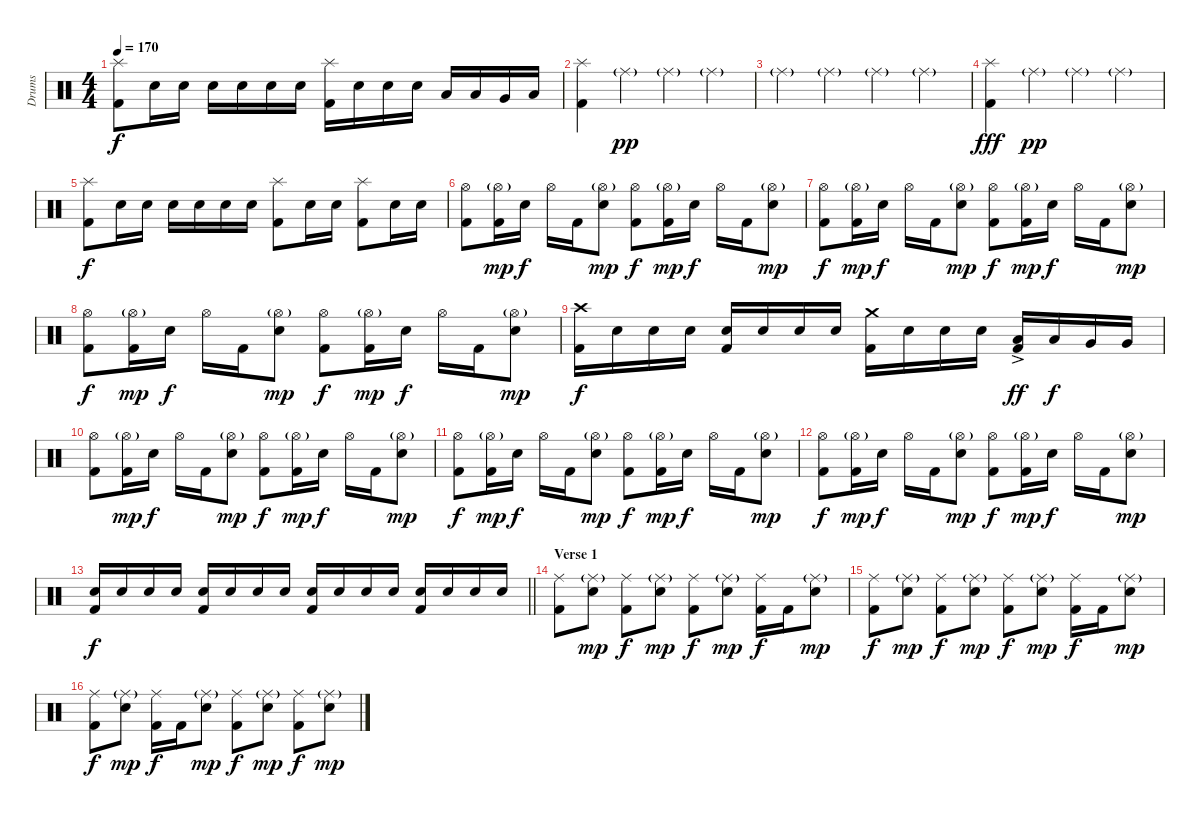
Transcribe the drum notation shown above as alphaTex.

\track ("Drums" "Drums") {instrument percussion}
\staff {score}
\articulation defaults
\ts (4 4)
\tempo 170
\clef neutral
\ks c
("Splash (hit)" "Kick (hit) 2").8{dy f} "Snare (hit) 2".16 "Snare (hit) 2".16 "Snare (hit) 2".16 "Snare (hit) 2".16 "Snare (hit) 2".16 "Snare (hit) 2".16 ("Splash (hit)" "Kick (hit) 2").16 "Snare (hit) 2".16 "Snare (hit) 2".16 "Snare (hit) 2".16 "Low Tom (hit)".16 "Low Tom (hit)".16 "Very Low Tom (hit)".16 "Low Floor Tom (hit)".16 |
("Splash (hit)" "Kick (hit) 2").4 "Ride (middle)"{g}.4{dy pp} "Ride (middle)"{g}.4 "Ride (middle)"{g}.4 |
"Ride (middle)"{g}.4 "Ride (middle)"{g}.4 "Ride (middle)"{g}.4 "Ride (middle)"{g}.4 |
("Splash (hit)" "Kick (hit) 2").4{dy fff} "Ride (middle)"{g}.4{dy pp} "Ride (middle)"{g}.4 "Ride (middle)"{g}.4 |
("Splash (hit)" "Kick (hit) 2").8{dy f} "Snare (hit) 2".16 "Snare (hit) 2".16 "Snare (hit) 2".16 "Snare (hit) 2".16 "Snare (hit) 2".16 "Snare (hit) 2".16 ("Splash (hit)" "Kick (hit) 2").8 "Snare (hit) 2".16 "Snare (hit) 2".16 ("Splash (hit)" "Kick (hit) 2").8 "Snare (hit) 2".16 "Snare (hit) 2".16 |
("Hi-Hat (open)" "Kick (hit) 2").8 ("Hi-Hat (open)"{g} "Kick (hit) 2").16{dy mp} "Snare (hit) 2".16{dy f} "Hi-Hat (open)".16 "Kick (hit) 2".16 ("Hi-Hat (open)"{g} "Snare (hit) 2").8{dy mp} ("Hi-Hat (open)" "Kick (hit) 2").8{dy f} ("Hi-Hat (open)"{g} "Kick (hit) 2").16{dy mp} "Snare (hit) 2".16{dy f} "Hi-Hat (open)".16 "Kick (hit) 2".16 ("Hi-Hat (open)"{g} "Snare (hit) 2").8{dy mp} |
("Hi-Hat (open)" "Kick (hit) 2").8{dy f} ("Hi-Hat (open)"{g} "Kick (hit) 2").16{dy mp} "Snare (hit) 2".16{dy f} "Hi-Hat (open)".16 "Kick (hit) 2".16 ("Hi-Hat (open)"{g} "Snare (hit) 2").8{dy mp} ("Hi-Hat (open)" "Kick (hit) 2").8{dy f} ("Hi-Hat (open)"{g} "Kick (hit) 2").16{dy mp} "Snare (hit) 2".16{dy f} "Hi-Hat (open)".16 "Kick (hit) 2".16 ("Hi-Hat (open)"{g} "Snare (hit) 2").8{dy mp} |
("Hi-Hat (open)" "Kick (hit) 2").8{dy f} ("Hi-Hat (open)"{g} "Kick (hit) 2").16{dy mp} "Snare (hit) 2".16{dy f} "Hi-Hat (open)".16 "Kick (hit) 2".16 ("Hi-Hat (open)"{g} "Snare (hit) 2").8{dy mp} ("Hi-Hat (open)" "Kick (hit) 2").8{dy f} ("Hi-Hat (open)"{g} "Kick (hit) 2").16{dy mp} "Snare (hit) 2".16{dy f} "Hi-Hat (open)".16 "Kick (hit) 2".16 ("Hi-Hat (open)"{g} "Snare (hit) 2").8{dy mp} |
("Crash high (hit)" "Kick (hit) 2").16{dy f} "Snare (hit) 2".16 "Snare (hit) 2".16 "Snare (hit) 2".16 ("Snare (hit) 2" "Kick (hit) 2").16 "Snare (hit) 2".16 "Snare (hit) 2".16 "Snare (hit) 2".16 ("Crash medium (hit)" "Kick (hit) 2").16 "Snare (hit) 2".16 "Snare (hit) 2".16 "Snare (hit) 2".16 ("Low Tom (hit)"{ac} "Kick (hit) 2").16{dy ff} "Low Tom (hit)".16{dy f} "Very Low Tom (hit)".16 "Very Low Tom (hit)".16 |
("Hi-Hat (open)" "Kick (hit) 2").8 ("Hi-Hat (open)"{g} "Kick (hit) 2").16{dy mp} "Snare (hit) 2".16{dy f} "Hi-Hat (open)".16 "Kick (hit) 2".16 ("Hi-Hat (open)"{g} "Snare (hit) 2").8{dy mp} ("Hi-Hat (open)" "Kick (hit) 2").8{dy f} ("Hi-Hat (open)"{g} "Kick (hit) 2").16{dy mp} "Snare (hit) 2".16{dy f} "Hi-Hat (open)".16 "Kick (hit) 2".16 ("Hi-Hat (open)"{g} "Snare (hit) 2").8{dy mp} |
("Hi-Hat (open)" "Kick (hit) 2").8{dy f} ("Hi-Hat (open)"{g} "Kick (hit) 2").16{dy mp} "Snare (hit) 2".16{dy f} "Hi-Hat (open)".16 "Kick (hit) 2".16 ("Hi-Hat (open)"{g} "Snare (hit) 2").8{dy mp} ("Hi-Hat (open)" "Kick (hit) 2").8{dy f} ("Hi-Hat (open)"{g} "Kick (hit) 2").16{dy mp} "Snare (hit) 2".16{dy f} "Hi-Hat (open)".16 "Kick (hit) 2".16 ("Hi-Hat (open)"{g} "Snare (hit) 2").8{dy mp} |
("Hi-Hat (open)" "Kick (hit) 2").8{dy f} ("Hi-Hat (open)"{g} "Kick (hit) 2").16{dy mp} "Snare (hit) 2".16{dy f} "Hi-Hat (open)".16 "Kick (hit) 2".16 ("Hi-Hat (open)"{g} "Snare (hit) 2").8{dy mp} ("Hi-Hat (open)" "Kick (hit) 2").8{dy f} ("Hi-Hat (open)"{g} "Kick (hit) 2").16{dy mp} "Snare (hit) 2".16{dy f} "Hi-Hat (open)".16 "Kick (hit) 2".16 ("Hi-Hat (open)"{g} "Snare (hit) 2").8{dy mp} |
\barLineRight lightlight
("Snare (hit) 2" "Kick (hit) 2").16{dy f} "Snare (hit) 2".16 "Snare (hit) 2".16 "Snare (hit) 2".16 ("Snare (hit) 2" "Kick (hit) 2").16 "Snare (hit) 2".16 "Snare (hit) 2".16 "Snare (hit) 2".16 ("Snare (hit) 2" "Kick (hit) 2").16 "Snare (hit) 2".16 "Snare (hit) 2".16 "Snare (hit) 2".16 ("Snare (hit) 2" "Kick (hit) 2").16 "Snare (hit) 2".16 "Snare (hit) 2".16 "Snare (hit) 2".16 |
\section ("" "Verse 1")
("Ride (middle)" "Kick (hit) 2").8 ("Ride (middle)"{g} "Snare (hit) 2").8{dy mp} ("Ride (middle)" "Kick (hit) 2").8{dy f} ("Ride (middle)"{g} "Snare (hit) 2").8{dy mp} ("Ride (middle)" "Kick (hit) 2").8{dy f} ("Ride (middle)"{g} "Snare (hit) 2").8{dy mp} ("Ride (middle)" "Kick (hit) 2").16{dy f} "Kick (hit) 2".16 ("Ride (middle)"{g} "Snare (hit) 2").8{dy mp} |
("Ride (middle)" "Kick (hit) 2").8{dy f} ("Ride (middle)"{g} "Snare (hit) 2").8{dy mp} ("Ride (middle)" "Kick (hit) 2").8{dy f} ("Ride (middle)"{g} "Snare (hit) 2").8{dy mp} ("Ride (middle)" "Kick (hit) 2").8{dy f} ("Ride (middle)"{g} "Snare (hit) 2").8{dy mp} ("Ride (middle)" "Kick (hit) 2").16{dy f} "Kick (hit) 2".16 ("Ride (middle)"{g} "Snare (hit) 2").8{dy mp} |
("Ride (middle)" "Kick (hit) 2").8{dy f} ("Ride (middle)"{g} "Snare (hit) 2").8{dy mp} ("Ride (middle)" "Kick (hit) 2").16{dy f} "Kick (hit) 2".16 ("Ride (middle)"{g} "Snare (hit) 2").8{dy mp} ("Ride (middle)" "Kick (hit) 2").8{dy f} ("Ride (middle)"{g} "Snare (hit) 2").8{dy mp} ("Ride (middle)" "Kick (hit) 2").8{dy f} ("Ride (middle)"{g} "Snare (hit) 2").8{dy mp}
